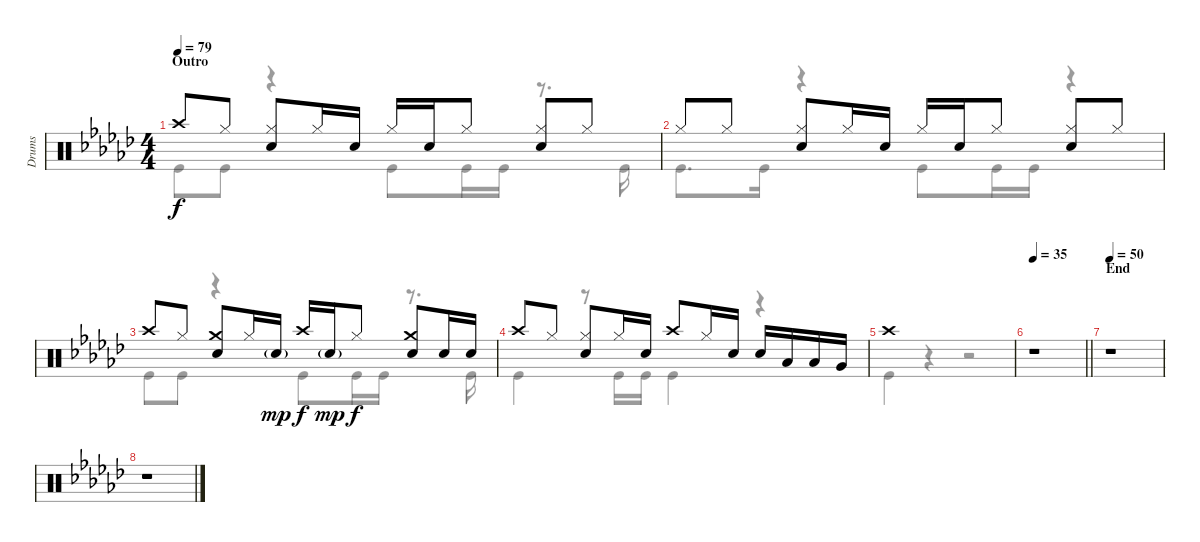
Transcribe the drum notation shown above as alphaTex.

\track ("Drums" "Drums") {instrument percussion}
\staff {score}
\articulation defaults
\voice
\ts (4 4)
\section ("" "Outro")
\tempo 79
\clef neutral
\ks gb "Crash high (hit)".8{dy f} "Hi-Hat (closed)".8
("Hi-Hat (closed)" "Snare (hit) 2").8 "Hi-Hat (closed)".16 "Snare (hit) 2".16 "Hi-Hat (closed)".16 "Snare (hit) 2".16 "Hi-Hat (closed)".8 ("Hi-Hat (closed)" "Snare (hit) 2").8 "Hi-Hat (closed)".8 |
"Hi-Hat (closed)".8 "Hi-Hat (closed)".8 ("Hi-Hat (closed)" "Snare (hit) 2").8 "Hi-Hat (closed)".16 "Snare (hit) 2".16 "Hi-Hat (closed)".16 "Snare (hit) 2".16 "Hi-Hat (closed)".8 ("Hi-Hat (closed)" "Snare (hit) 2").8 "Hi-Hat (closed)".8 |
"Crash high (hit)".8 "Hi-Hat (closed)".8 ("Crash medium (hit)" "Snare (hit) 2").8 "Hi-Hat (closed)".16 "Snare (hit) 2"{g}.16{dy mp} "Crash high (hit)".16{dy f} "Snare (hit) 2"{g}.16{dy mp} "Hi-Hat (closed)".8{dy f} ("Crash medium (hit)" "Snare (hit) 2").8 "Snare (hit) 2".16 "Snare (hit) 2".16 |
"Crash high (hit)".8 "Hi-Hat (closed)".8 ("Hi-Hat (closed)" "Snare (hit) 2").8 "Hi-Hat (closed)".16 "Snare (hit) 2".16 "Crash high (hit)".8 "Hi-Hat (closed)".16 "Snare (hit) 2".16 "Snare (hit) 2".16 "Low Tom (hit)".16 "Low Tom (hit)".16 "Very Low Tom (hit)".16 |
"Crash high (hit)".1 |
\tempo 35
\barLineRight lightlight
r.1 |
\section ("" "End")
\tempo 50
r.1 |
r.1
\voice
\clef neutral
\ottava regular
\simile none
\ks gb "Kick (hit)".8{dy f} "Kick (hit)".8
r.4 "Kick (hit)".8 "Kick (hit)".16 "Kick (hit)".16 r.8{d} "Kick (hit)".16 |
"Kick (hit)".8{d} "Kick (hit)".16 r.4 "Kick (hit)".8 "Kick (hit)".16 "Kick (hit)".16 r.4 |
"Kick (hit)".8 "Kick (hit)".8 r.4 "Kick (hit)".8 "Kick (hit)".16 "Kick (hit)".16 r.8{d} "Kick (hit)".16 |
"Kick (hit)".4 r.8 "Kick (hit)".16 "Kick (hit)".16 "Kick (hit)".4 r.4 |
"Kick (hit)".4 r.4 r.2 |
\barLineRight lightlight
r.1 |
r.1 |
r.1
